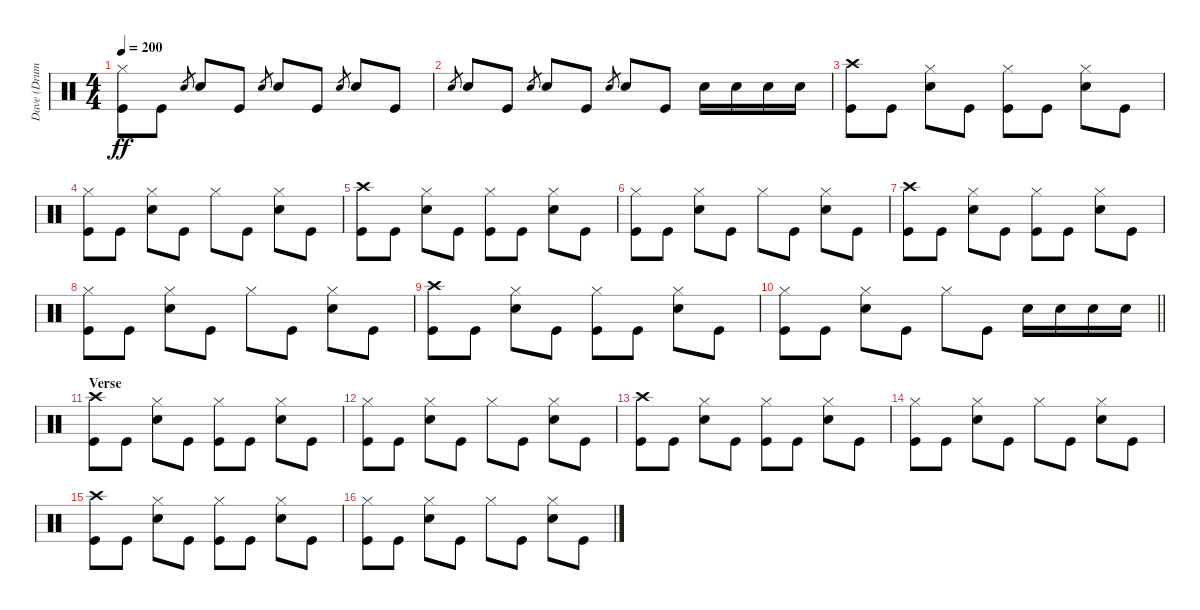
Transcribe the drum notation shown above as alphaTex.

\track ("Dave (Drums)" "Dave (Drum") {instrument percussion}
\staff {score}
\articulation defaults
\ts (4 4)
\tempo 200
\clef neutral
\ks c
("Hi-Hat (closed)" "Kick (hit)").8{dy ff} "Kick (hit)".8 "Snare (hit) 2".8{gr} "Snare (hit) 2".8 "Kick (hit)".8 "Snare (hit) 2".8{gr} "Snare (hit) 2".8 "Kick (hit)".8 "Snare (hit) 2".8{gr} "Snare (hit) 2".8 "Kick (hit)".8 |
"Snare (hit) 2".8{gr} "Snare (hit) 2".8 "Kick (hit)".8 "Snare (hit) 2".8{gr} "Snare (hit) 2".8 "Kick (hit)".8 "Snare (hit) 2".8{gr} "Snare (hit) 2".8 "Kick (hit)".8 "Snare (hit) 2".16 "Snare (hit) 2".16 "Snare (hit) 2".16 "Snare (hit) 2".16 |
("Crash high (hit)" "Kick (hit)").8 "Kick (hit)".8 ("Hi-Hat (closed)" "Snare (hit) 2").8 "Kick (hit)".8 ("Hi-Hat (closed)" "Kick (hit)").8 "Kick (hit)".8 ("Hi-Hat (closed)" "Snare (hit) 2").8 "Kick (hit)".8 |
("Hi-Hat (closed)" "Kick (hit)").8 "Kick (hit)".8 ("Hi-Hat (closed)" "Snare (hit) 2").8 "Kick (hit)".8 "Hi-Hat (closed)".8 "Kick (hit)".8 ("Hi-Hat (closed)" "Snare (hit) 2").8 "Kick (hit)".8 |
("Crash high (hit)" "Kick (hit)").8 "Kick (hit)".8 ("Hi-Hat (closed)" "Snare (hit) 2").8 "Kick (hit)".8 ("Hi-Hat (closed)" "Kick (hit)").8 "Kick (hit)".8 ("Hi-Hat (closed)" "Snare (hit) 2").8 "Kick (hit)".8 |
("Hi-Hat (closed)" "Kick (hit)").8 "Kick (hit)".8 ("Hi-Hat (closed)" "Snare (hit) 2").8 "Kick (hit)".8 "Hi-Hat (closed)".8 "Kick (hit)".8 ("Hi-Hat (closed)" "Snare (hit) 2").8 "Kick (hit)".8 |
("Crash high (hit)" "Kick (hit)").8 "Kick (hit)".8 ("Hi-Hat (closed)" "Snare (hit) 2").8 "Kick (hit)".8 ("Hi-Hat (closed)" "Kick (hit)").8 "Kick (hit)".8 ("Hi-Hat (closed)" "Snare (hit) 2").8 "Kick (hit)".8 |
("Hi-Hat (closed)" "Kick (hit)").8 "Kick (hit)".8 ("Hi-Hat (closed)" "Snare (hit) 2").8 "Kick (hit)".8 "Hi-Hat (closed)".8 "Kick (hit)".8 ("Hi-Hat (closed)" "Snare (hit) 2").8 "Kick (hit)".8 |
("Crash high (hit)" "Kick (hit)").8 "Kick (hit)".8 ("Hi-Hat (closed)" "Snare (hit) 2").8 "Kick (hit)".8 ("Hi-Hat (closed)" "Kick (hit)").8 "Kick (hit)".8 ("Hi-Hat (closed)" "Snare (hit) 2").8 "Kick (hit)".8 |
\barLineRight lightlight
("Hi-Hat (closed)" "Kick (hit)").8 "Kick (hit)".8 ("Hi-Hat (closed)" "Snare (hit) 2").8 "Kick (hit)".8 "Hi-Hat (closed)".8 "Kick (hit)".8 "Snare (hit) 2".16 "Snare (hit) 2".16 "Snare (hit) 2".16 "Snare (hit) 2".16 |
\section ("" "Verse")
("Crash high (hit)" "Kick (hit)").8 "Kick (hit)".8 ("Hi-Hat (closed)" "Snare (hit) 2").8 "Kick (hit)".8 ("Hi-Hat (closed)" "Kick (hit)").8 "Kick (hit)".8 ("Hi-Hat (closed)" "Snare (hit) 2").8 "Kick (hit)".8 |
("Hi-Hat (closed)" "Kick (hit)").8 "Kick (hit)".8 ("Hi-Hat (closed)" "Snare (hit) 2").8 "Kick (hit)".8 "Hi-Hat (closed)".8 "Kick (hit)".8 ("Hi-Hat (closed)" "Snare (hit) 2").8 "Kick (hit)".8 |
("Crash high (hit)" "Kick (hit)").8 "Kick (hit)".8 ("Hi-Hat (closed)" "Snare (hit) 2").8 "Kick (hit)".8 ("Hi-Hat (closed)" "Kick (hit)").8 "Kick (hit)".8 ("Hi-Hat (closed)" "Snare (hit) 2").8 "Kick (hit)".8 |
("Hi-Hat (closed)" "Kick (hit)").8 "Kick (hit)".8 ("Hi-Hat (closed)" "Snare (hit) 2").8 "Kick (hit)".8 "Hi-Hat (closed)".8 "Kick (hit)".8 ("Hi-Hat (closed)" "Snare (hit) 2").8 "Kick (hit)".8 |
("Crash high (hit)" "Kick (hit)").8 "Kick (hit)".8 ("Hi-Hat (closed)" "Snare (hit) 2").8 "Kick (hit)".8 ("Hi-Hat (closed)" "Kick (hit)").8 "Kick (hit)".8 ("Hi-Hat (closed)" "Snare (hit) 2").8 "Kick (hit)".8 |
("Hi-Hat (closed)" "Kick (hit)").8 "Kick (hit)".8 ("Hi-Hat (closed)" "Snare (hit) 2").8 "Kick (hit)".8 "Hi-Hat (closed)".8 "Kick (hit)".8 ("Hi-Hat (closed)" "Snare (hit) 2").8 "Kick (hit)".8
